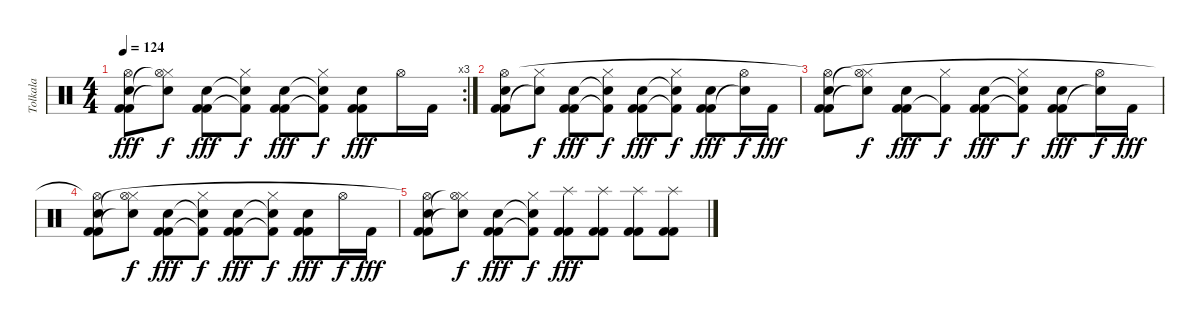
\track ("Tolkala" "Tolkala") {instrument percussion}
\staff {score}
\articulation defaults
\rc 3
\ts (4 4)
\tempo 124
\clef neutral
\ks c
("Kick (hit) 2" "Kick (hit) 2" "Snare (hit) 2" "Hi-Hat (open)"{t}).8{dy fff} ("Hi-Hat (closed)" "Snare (hit) 2"{t} "Hi-Hat (open)"{t}).8{dy f} ("Kick (hit) 2" "Kick (hit) 2" "Snare (hit) 2").8{dy fff} ("Kick (hit) 2"{t} "Hi-Hat (closed)" "Snare (hit) 2"{t}).8{dy f} ("Kick (hit) 2" "Kick (hit) 2" "Snare (hit) 2").8{dy fff} ("Kick (hit) 2"{t} "Hi-Hat (closed)" "Snare (hit) 2"{t}).8{dy f} ("Kick (hit) 2" "Kick (hit) 2" "Snare (hit) 2").8{dy fff} "Hi-Hat (open)".16 "Kick (hit) 2".16 |
("Kick (hit) 2" "Kick (hit) 2" "Snare (hit) 2" "Hi-Hat (open)").8{volume 16} ("Hi-Hat (closed)" "Snare (hit) 2"{t}).8{dy f} ("Kick (hit) 2" "Kick (hit) 2" "Snare (hit) 2").8{dy fff} ("Kick (hit) 2"{t} "Hi-Hat (closed)" "Snare (hit) 2"{t}).8{dy f} ("Kick (hit) 2" "Kick (hit) 2" "Snare (hit) 2").8{dy fff} ("Kick (hit) 2"{t} "Hi-Hat (closed)" "Snare (hit) 2"{t}).8{dy f} ("Kick (hit) 2" "Kick (hit) 2" "Snare (hit) 2").8{dy fff} ("Snare (hit) 2"{t} "Hi-Hat (open)").16{dy f} "Kick (hit) 2".16{dy fff} |
("Kick (hit) 2" "Kick (hit) 2" "Snare (hit) 2" "Hi-Hat (open)"{t}).8 ("Hi-Hat (closed)" "Snare (hit) 2"{t} "Hi-Hat (open)"{t}).8{dy f} ("Kick (hit) 2" "Kick (hit) 2" "Snare (hit) 2").8{dy fff} ("Kick (hit) 2"{t} "Hi-Hat (closed)").8{dy f} ("Kick (hit) 2" "Kick (hit) 2" "Snare (hit) 2").8{dy fff} ("Kick (hit) 2"{t} "Hi-Hat (closed)" "Snare (hit) 2"{t}).8{dy f} ("Kick (hit) 2" "Kick (hit) 2" "Snare (hit) 2").8{dy fff} ("Snare (hit) 2"{t} "Hi-Hat (open)").16{dy f} "Kick (hit) 2".16{dy fff} |
("Kick (hit) 2" "Kick (hit) 2" "Snare (hit) 2" "Hi-Hat (open)"{t}).8 ("Hi-Hat (closed)" "Snare (hit) 2"{t} "Hi-Hat (open)"{t}).8{dy f} ("Kick (hit) 2" "Kick (hit) 2" "Snare (hit) 2").8{dy fff} ("Kick (hit) 2"{t} "Hi-Hat (closed)" "Snare (hit) 2"{t}).8{dy f} ("Kick (hit) 2" "Kick (hit) 2" "Snare (hit) 2").8{dy fff} ("Kick (hit) 2"{t} "Hi-Hat (closed)" "Snare (hit) 2"{t}).8{dy f} ("Kick (hit) 2" "Kick (hit) 2" "Snare (hit) 2").8{dy fff} "Hi-Hat (open)".16{dy f} "Kick (hit) 2".16{dy fff} |
("Kick (hit) 2" "Kick (hit) 2" "Snare (hit) 2" "Hi-Hat (open)"{t}).8 ("Hi-Hat (closed)" "Snare (hit) 2"{t} "Hi-Hat (open)"{t}).8{dy f} ("Kick (hit) 2" "Kick (hit) 2" "Snare (hit) 2").8{dy fff} ("Kick (hit) 2"{t} "Hi-Hat (closed)" "Snare (hit) 2"{t}).8{dy f} ("Kick (hit) 2" "Kick (hit) 2" "Splash (hit)").8{dy fff} ("Kick (hit) 2" "Kick (hit) 2" "Splash (hit)").8 ("Kick (hit) 2" "Kick (hit) 2" "Splash (hit)").8 ("Kick (hit) 2" "Kick (hit) 2" "Splash (hit)").8
